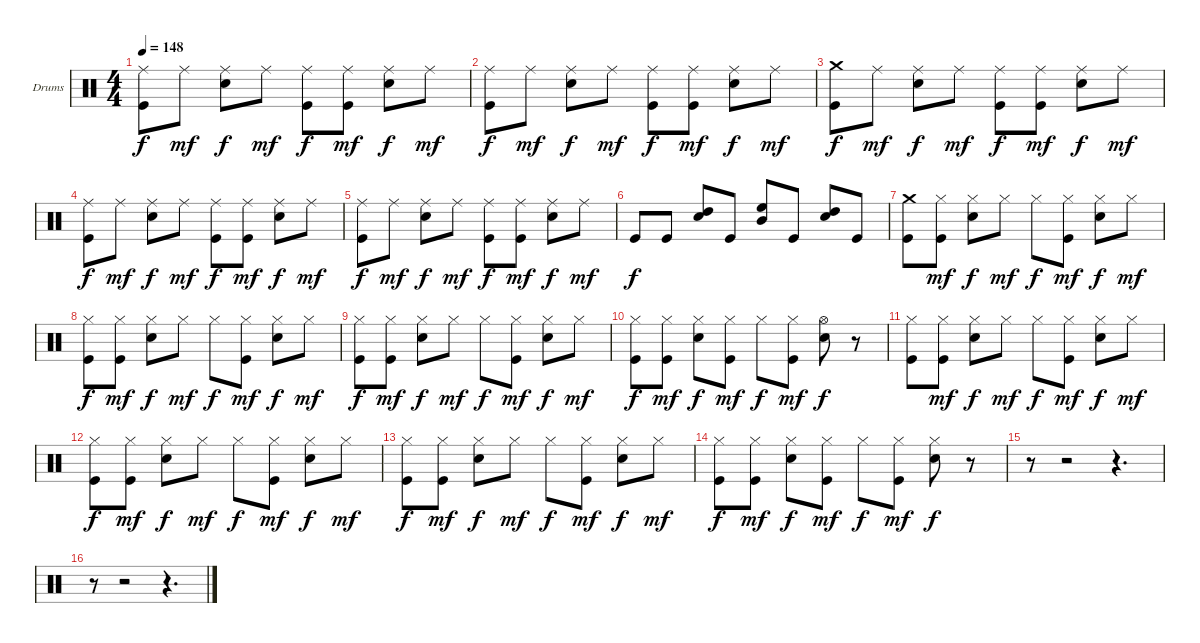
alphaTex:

\defaultSystemsLayout 4
\bracketExtendMode groupsimilarinstruments
\firstSystemTrackNameOrientation horizontal
\otherSystemsTrackNameOrientation horizontal
\track ("Drumkit" "Drums") {instrument percussion}
\staff {score}
\articulation defaults
\ts (4 4)
\tempo 148
\clef neutral
\scale
0.333333
\ks c
("Ride (middle)" "Kick (hit)").8{dy f} "Ride (middle)".8{dy mf} ("Ride (middle)" "Snare (hit) 2").8{dy f} "Ride (middle)".8{dy mf} ("Ride (middle)" "Kick (hit)").8{dy f} ("Ride (middle)" "Kick (hit)").8{dy mf} ("Ride (middle)" "Snare (hit) 2").8{dy f} "Ride (middle)".8{dy mf} |
\scale
0.333333 ("Ride (middle)" "Kick (hit)").8{dy f} "Ride (middle)".8{dy mf} ("Ride (middle)" "Snare (hit) 2").8{dy f} "Ride (middle)".8{dy mf} ("Ride (middle)" "Kick (hit)").8{dy f} ("Ride (middle)" "Kick (hit)").8{dy mf} ("Ride (middle)" "Snare (hit) 2").8{dy f} "Ride (middle)".8{dy mf} |
\scale
0.333333 ("Crash medium (hit)" "Kick (hit)").8{dy f} "Ride (middle)".8{dy mf} ("Ride (middle)" "Snare (hit) 2").8{dy f} "Ride (middle)".8{dy mf} ("Ride (middle)" "Kick (hit)").8{dy f} ("Ride (middle)" "Kick (hit)").8{dy mf} ("Ride (middle)" "Snare (hit) 2").8{dy f} "Ride (middle)".8{dy mf} |
\scale
0.333333 ("Ride (middle)" "Kick (hit)").8{dy f} "Ride (middle)".8{dy mf} ("Ride (middle)" "Snare (hit) 2").8{dy f} "Ride (middle)".8{dy mf} ("Ride (middle)" "Kick (hit)").8{dy f} ("Ride (middle)" "Kick (hit)").8{dy mf} ("Ride (middle)" "Snare (hit) 2").8{dy f} "Ride (middle)".8{dy mf} |
\scale
0.333333 ("Ride (middle)" "Kick (hit)").8{dy f} "Ride (middle)".8{dy mf} ("Ride (middle)" "Snare (hit) 2").8{dy f} "Ride (middle)".8{dy mf} ("Ride (middle)" "Kick (hit)").8{dy f} ("Ride (middle)" "Kick (hit)").8{dy mf} ("Ride (middle)" "Snare (hit) 2").8{dy f} "Ride (middle)".8{dy mf} |
\scale
0.333333 "Kick (hit)".8{dy f} "Kick (hit)".8 ("High Tom (hit)" "Snare (hit) 2").8 "Kick (hit)".8 ("High Floor Tom (hit)" "Mid Tom (hit)").8 "Kick (hit)".8 ("High Tom (hit)" "Snare (hit) 2").8 "Kick (hit)".8 |
\scale
0.333333 ("Crash medium (hit)" "Kick (hit)").8 ("Hi-Hat (closed)" "Kick (hit)").8{dy mf} ("Hi-Hat (closed)" "Snare (hit) 2").8{dy f} "Hi-Hat (closed)".8{dy mf} "Hi-Hat (closed)".8{dy f} ("Hi-Hat (closed)" "Kick (hit)").8{dy mf} ("Hi-Hat (closed)" "Snare (hit) 2").8{dy f} "Hi-Hat (closed)".8{dy mf} |
\scale
0.333333 ("Hi-Hat (closed)" "Kick (hit)").8{dy f} ("Hi-Hat (closed)" "Kick (hit)").8{dy mf} ("Hi-Hat (closed)" "Snare (hit) 2").8{dy f} "Hi-Hat (closed)".8{dy mf} "Hi-Hat (closed)".8{dy f} ("Hi-Hat (closed)" "Kick (hit)").8{dy mf} ("Hi-Hat (closed)" "Snare (hit) 2").8{dy f} "Hi-Hat (closed)".8{dy mf} |
\scale
0.333333 ("Hi-Hat (closed)" "Kick (hit)").8{dy f} ("Hi-Hat (closed)" "Kick (hit)").8{dy mf} ("Hi-Hat (closed)" "Snare (hit) 2").8{dy f} "Hi-Hat (closed)".8{dy mf} "Hi-Hat (closed)".8{dy f} ("Hi-Hat (closed)" "Kick (hit)").8{dy mf} ("Hi-Hat (closed)" "Snare (hit) 2").8{dy f} "Hi-Hat (closed)".8{dy mf} |
\scale
0.333333 ("Hi-Hat (closed)" "Kick (hit)").8{dy f} ("Hi-Hat (closed)" "Kick (hit)").8{dy mf} ("Hi-Hat (closed)" "Snare (hit) 2").8{dy f} ("Hi-Hat (closed)" "Kick (hit)").8{dy mf} "Hi-Hat (closed)".8{dy f} ("Hi-Hat (closed)" "Kick (hit)").8{dy mf} ("Hi-Hat (open)" "Snare (hit) 2").8{dy f} r.8 |
\scale
0.333333 ("Hi-Hat (closed)" "Kick (hit)").8 ("Hi-Hat (closed)" "Kick (hit)").8{dy mf} ("Hi-Hat (closed)" "Snare (hit) 2").8{dy f} "Hi-Hat (closed)".8{dy mf} "Hi-Hat (closed)".8{dy f} ("Hi-Hat (closed)" "Kick (hit)").8{dy mf} ("Hi-Hat (closed)" "Snare (hit) 2").8{dy f} "Hi-Hat (closed)".8{dy mf} |
\scale
0.333333 ("Hi-Hat (closed)" "Kick (hit)").8{dy f} ("Hi-Hat (closed)" "Kick (hit)").8{dy mf} ("Hi-Hat (closed)" "Snare (hit) 2").8{dy f} "Hi-Hat (closed)".8{dy mf} "Hi-Hat (closed)".8{dy f} ("Hi-Hat (closed)" "Kick (hit)").8{dy mf} ("Hi-Hat (closed)" "Snare (hit) 2").8{dy f} "Hi-Hat (closed)".8{dy mf} |
\scale
0.333333 ("Hi-Hat (closed)" "Kick (hit)").8{dy f} ("Hi-Hat (closed)" "Kick (hit)").8{dy mf} ("Hi-Hat (closed)" "Snare (hit) 2").8{dy f} "Hi-Hat (closed)".8{dy mf} "Hi-Hat (closed)".8{dy f} ("Hi-Hat (closed)" "Kick (hit)").8{dy mf} ("Hi-Hat (closed)" "Snare (hit) 2").8{dy f} "Hi-Hat (closed)".8{dy mf} |
\scale
0.333333 ("Hi-Hat (closed)" "Kick (hit)").8{dy f} ("Hi-Hat (closed)" "Kick (hit)").8{dy mf} ("Hi-Hat (closed)" "Snare (hit) 2").8{dy f} ("Hi-Hat (closed)" "Kick (hit)").8{dy mf} "Hi-Hat (closed)".8{dy f} ("Hi-Hat (closed)" "Kick (hit)").8{dy mf} ("Hi-Hat (closed)" "Snare (hit) 2").8{dy f} r.8 |
\scale
0.333333 r.8 r.2 r.4{d} |
\scale
0.333333 r.8 r.2 r.4{d}
